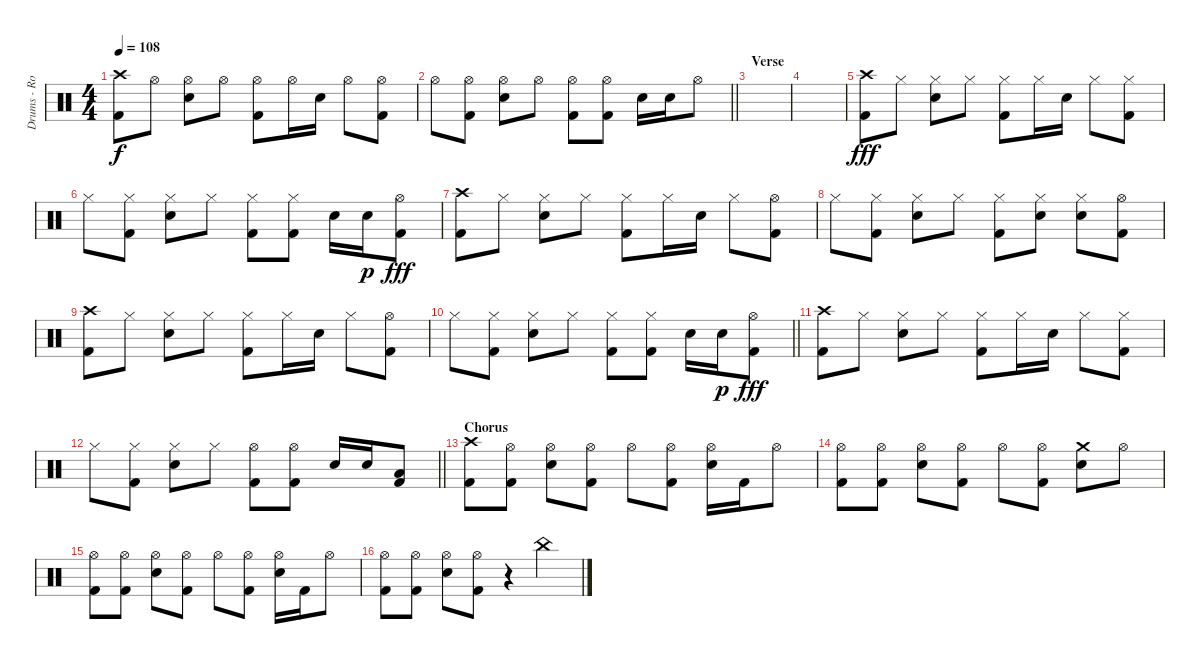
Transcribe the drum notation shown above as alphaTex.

\track ("Drums - Rob Bourdon" "Drums - Ro") {instrument percussion}
\staff {score}
\articulation defaults
\ts (4 4)
\tempo 108
\clef neutral
\ks c
("Crash high (hit)" "Kick (hit) 2").8{dy f} "Hi-Hat (open)".8 ("Hi-Hat (open)" "Snare (hit) 2").8 "Hi-Hat (open)".8 ("Hi-Hat (open)" "Kick (hit) 2").8 "Hi-Hat (open)".16 "Snare (hit) 2".16 "Hi-Hat (open)".8 ("Hi-Hat (open)" "Kick (hit) 2").8 |
\barLineRight lightlight "Hi-Hat (open)".8
("Hi-Hat (open)" "Kick (hit) 2").8 ("Hi-Hat (open)" "Snare (hit) 2").8 "Hi-Hat (open)".8 ("Hi-Hat (open)" "Kick (hit) 2").8 ("Hi-Hat (open)" "Kick (hit) 2").8 "Snare (hit) 2".16 "Snare (hit) 2".16 "Hi-Hat (open)".8 |
\section ("" "Verse")
|
|
("Crash high (hit)" "Kick (hit) 2").8{dy fff} "Hi-Hat (closed)".8 ("Hi-Hat (closed)" "Snare (hit) 2").8 "Hi-Hat (closed)".8 ("Hi-Hat (closed)" "Kick (hit) 2").8 "Hi-Hat (closed)".16 "Snare (hit) 2".16 "Hi-Hat (closed)".8 ("Hi-Hat (closed)" "Kick (hit) 2").8 |
"Hi-Hat (closed)".8 ("Hi-Hat (closed)" "Kick (hit) 2").8 ("Hi-Hat (closed)" "Snare (hit) 2").8 "Hi-Hat (closed)".8 ("Hi-Hat (closed)" "Kick (hit) 2").8 ("Hi-Hat (closed)" "Kick (hit) 2").8 "Snare (hit) 2".16 "Snare (hit) 2".16{dy p} ("Hi-Hat (open)" "Kick (hit) 2").8{dy fff} |
("Crash high (hit)" "Kick (hit) 2").8 "Hi-Hat (closed)".8 ("Hi-Hat (closed)" "Snare (hit) 2").8 "Hi-Hat (closed)".8 ("Hi-Hat (closed)" "Kick (hit) 2").8 "Hi-Hat (closed)".16 "Snare (hit) 2".16 "Hi-Hat (closed)".8 ("Hi-Hat (open)" "Kick (hit) 2").8 |
"Hi-Hat (closed)".8 ("Hi-Hat (closed)" "Kick (hit) 2").8 ("Hi-Hat (closed)" "Snare (hit) 2").8 "Hi-Hat (closed)".8 ("Hi-Hat (closed)" "Kick (hit) 2").8 ("Hi-Hat (closed)" "Snare (hit) 2").8 ("Hi-Hat (closed)" "Snare (hit) 2").8 ("Hi-Hat (open)" "Kick (hit) 2").8 |
("Crash high (hit)" "Kick (hit) 2").8 "Hi-Hat (closed)".8 ("Hi-Hat (closed)" "Snare (hit) 2").8 "Hi-Hat (closed)".8 ("Hi-Hat (closed)" "Kick (hit) 2").8 "Hi-Hat (closed)".16 "Snare (hit) 2".16 "Hi-Hat (closed)".8 ("Hi-Hat (open)" "Kick (hit) 2").8 |
\barLineRight lightlight "Hi-Hat (closed)".8
("Hi-Hat (closed)" "Kick (hit) 2").8 ("Hi-Hat (closed)" "Snare (hit) 2").8 "Hi-Hat (closed)".8 ("Hi-Hat (closed)" "Kick (hit) 2").8 ("Hi-Hat (closed)" "Kick (hit) 2").8 "Snare (hit) 2".16 "Snare (hit) 2".16{dy p} ("Hi-Hat (open)" "Kick (hit) 2").8{dy fff} |
("Crash high (hit)" "Kick (hit) 2").8 "Hi-Hat (closed)".8 ("Hi-Hat (closed)" "Snare (hit) 2").8 "Hi-Hat (closed)".8 ("Hi-Hat (closed)" "Kick (hit) 2").8 "Hi-Hat (closed)".16 "Snare (hit) 2".16 "Hi-Hat (closed)".8 ("Hi-Hat (closed)" "Kick (hit) 2").8 |
\barLineRight lightlight "Hi-Hat (closed)".8
("Hi-Hat (closed)" "Kick (hit) 2").8 ("Hi-Hat (closed)" "Snare (hit) 2").8 "Hi-Hat (closed)".8 ("Hi-Hat (open)" "Kick (hit) 2").8 ("Hi-Hat (open)" "Kick (hit) 2").8 "Snare (hit) 2".16 "Snare (hit) 2".16 ("Low Tom (hit)" "Kick (hit) 2").8 |
\section ("" "Chorus")
("Crash high (hit)" "Kick (hit) 2").8 ("Hi-Hat (open)" "Kick (hit) 2").8 ("Hi-Hat (open)" "Snare (hit) 2").8 ("Hi-Hat (open)" "Kick (hit) 2").8 "Hi-Hat (open)".8 ("Hi-Hat (open)" "Kick (hit) 2").8 ("Hi-Hat (open)" "Snare (hit) 2").16 "Kick (hit) 2".16 "Hi-Hat (open)".8 |
("Hi-Hat (open)" "Kick (hit) 2").8 ("Hi-Hat (open)" "Kick (hit) 2").8 ("Hi-Hat (open)" "Snare (hit) 2").8 ("Hi-Hat (open)" "Kick (hit) 2").8 "Hi-Hat (open)".8 ("Hi-Hat (open)" "Kick (hit) 2").8 ("Crash medium (hit)" "Snare (hit) 2").8 "Hi-Hat (open)".8 |
("Hi-Hat (open)" "Kick (hit) 2").8 ("Hi-Hat (open)" "Kick (hit) 2").8 ("Hi-Hat (open)" "Snare (hit) 2").8 ("Hi-Hat (open)" "Kick (hit) 2").8 "Hi-Hat (open)".8 ("Hi-Hat (open)" "Kick (hit) 2").8 ("Hi-Hat (open)" "Snare (hit) 2").16 "Kick (hit) 2".16 "Hi-Hat (open)".8 |
("Hi-Hat (open)" "Kick (hit) 2").8 ("Hi-Hat (open)" "Kick (hit) 2").8 ("Hi-Hat (open)" "Snare (hit) 2").8 ("Hi-Hat (open)" "Kick (hit) 2").8 r.4 "China (hit)".4
